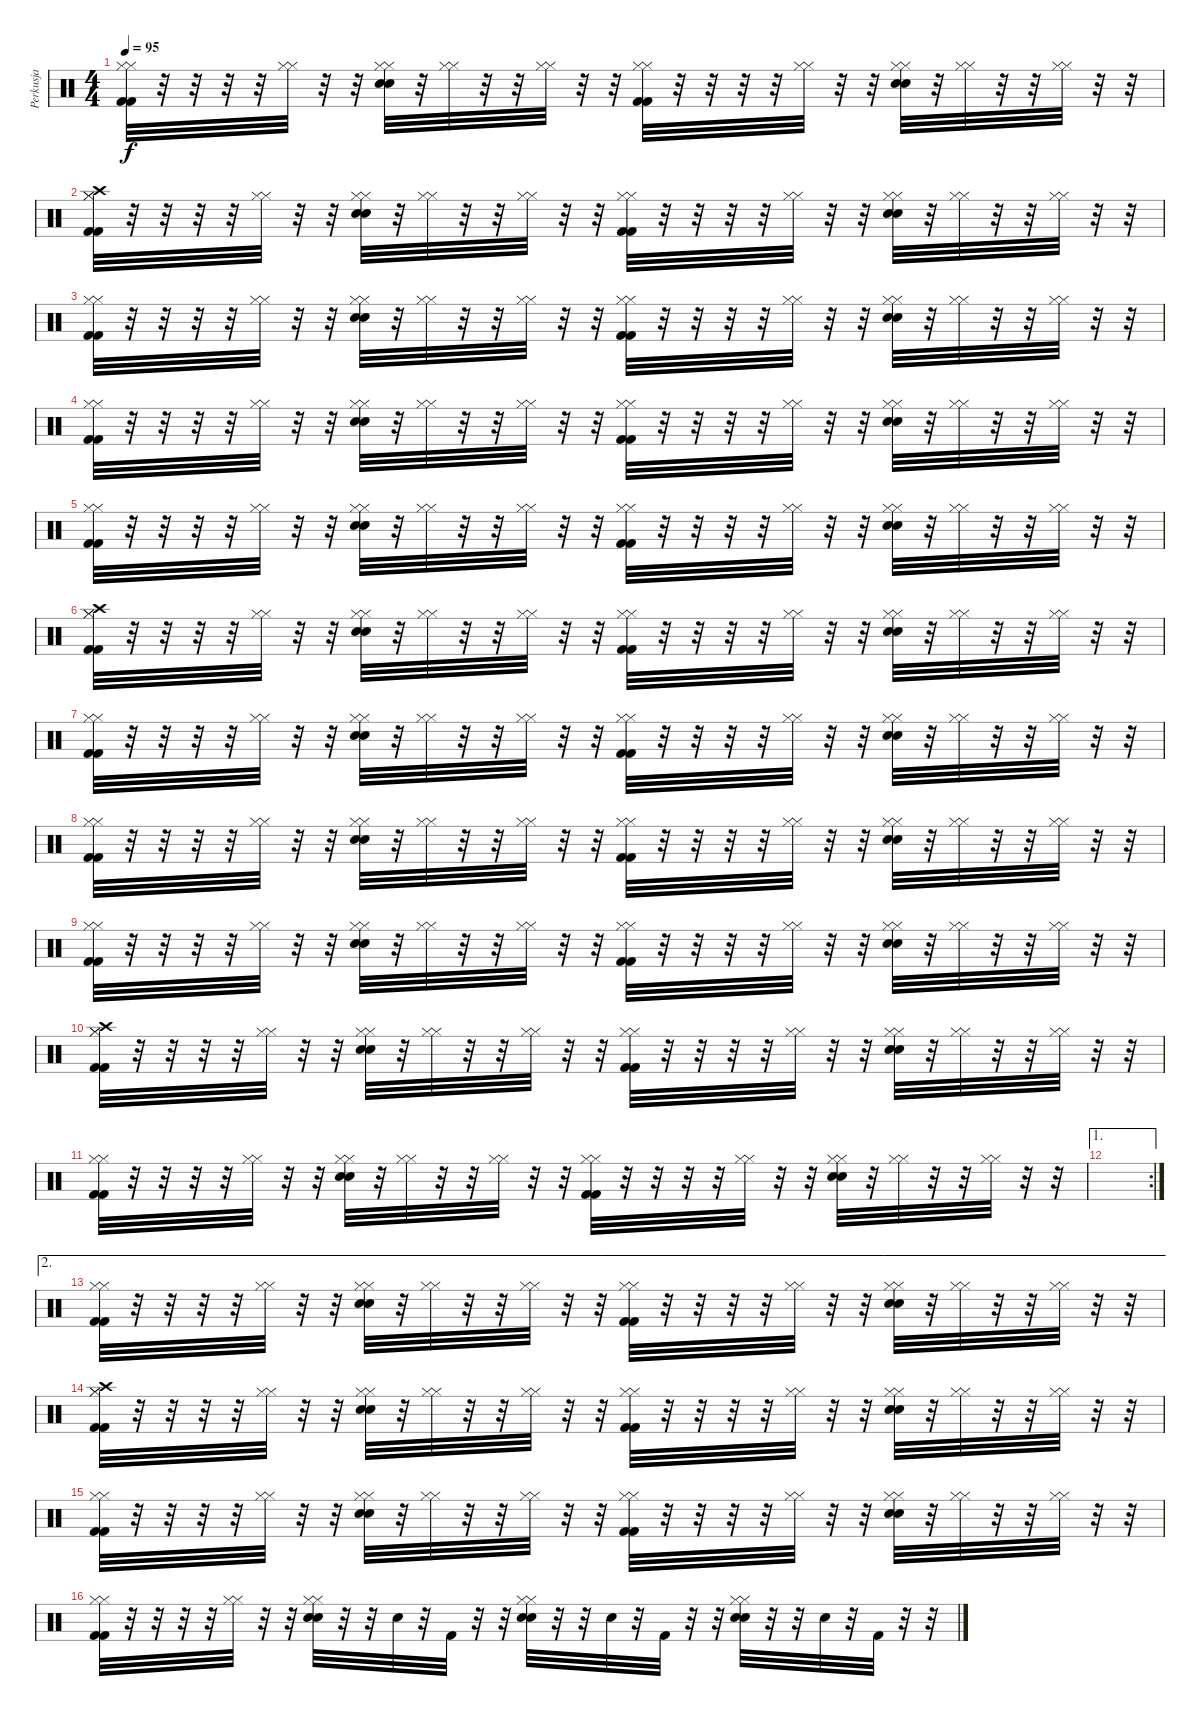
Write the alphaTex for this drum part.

\track ("Perkusja" "Perkusja") {instrument percussion}
\staff {score}
\articulation defaults
\ts (4 4)
\tempo 95
\clef neutral
\ks c
("Hi-Hat (closed)" "Hi-Hat (closed)" "Kick (hit) 2" "Kick (hit) 2").32{dy f} r.32 r.32 r.32 r.32 ("Hi-Hat (closed)" "Hi-Hat (closed)").32 r.32 r.32 ("Hi-Hat (closed)" "Hi-Hat (closed)" "Snare (hit) 2" "Snare (hit) 2").32 r.32 ("Hi-Hat (closed)" "Hi-Hat (closed)").32 r.32 r.32 ("Hi-Hat (closed)" "Hi-Hat (closed)").32 r.32 r.32 ("Hi-Hat (closed)" "Hi-Hat (closed)" "Kick (hit) 2" "Kick (hit) 2").32 r.32 r.32 r.32 r.32 ("Hi-Hat (closed)" "Hi-Hat (closed)").32 r.32 r.32 ("Hi-Hat (closed)" "Hi-Hat (closed)" "Snare (hit) 2" "Snare (hit) 2").32 r.32 ("Hi-Hat (closed)" "Hi-Hat (closed)").32 r.32 r.32 ("Hi-Hat (closed)" "Hi-Hat (closed)").32 r.32 r.32 |
("Crash high (hit)" "Hi-Hat (closed)" "Hi-Hat (closed)" "Kick (hit) 2" "Kick (hit) 2").32 r.32 r.32 r.32 r.32 ("Hi-Hat (closed)" "Hi-Hat (closed)").32 r.32 r.32 ("Hi-Hat (closed)" "Hi-Hat (closed)" "Snare (hit) 2" "Snare (hit) 2").32 r.32 ("Hi-Hat (closed)" "Hi-Hat (closed)").32 r.32 r.32 ("Hi-Hat (closed)" "Hi-Hat (closed)").32 r.32 r.32 ("Hi-Hat (closed)" "Hi-Hat (closed)" "Kick (hit) 2" "Kick (hit) 2").32 r.32 r.32 r.32 r.32 ("Hi-Hat (closed)" "Hi-Hat (closed)").32 r.32 r.32 ("Hi-Hat (closed)" "Hi-Hat (closed)" "Snare (hit) 2" "Snare (hit) 2").32 r.32 ("Hi-Hat (closed)" "Hi-Hat (closed)").32 r.32 r.32 ("Hi-Hat (closed)" "Hi-Hat (closed)").32 r.32 r.32 |
("Hi-Hat (closed)" "Hi-Hat (closed)" "Kick (hit) 2" "Kick (hit) 2").32 r.32 r.32 r.32 r.32 ("Hi-Hat (closed)" "Hi-Hat (closed)").32 r.32 r.32 ("Hi-Hat (closed)" "Hi-Hat (closed)" "Snare (hit) 2" "Snare (hit) 2").32 r.32 ("Hi-Hat (closed)" "Hi-Hat (closed)").32 r.32 r.32 ("Hi-Hat (closed)" "Hi-Hat (closed)").32 r.32 r.32 ("Hi-Hat (closed)" "Hi-Hat (closed)" "Kick (hit) 2" "Kick (hit) 2").32 r.32 r.32 r.32 r.32 ("Hi-Hat (closed)" "Hi-Hat (closed)").32 r.32 r.32 ("Hi-Hat (closed)" "Hi-Hat (closed)" "Snare (hit) 2" "Snare (hit) 2").32 r.32 ("Hi-Hat (closed)" "Hi-Hat (closed)").32 r.32 r.32 ("Hi-Hat (closed)" "Hi-Hat (closed)").32 r.32 r.32 |
("Hi-Hat (closed)" "Hi-Hat (closed)" "Kick (hit) 2" "Kick (hit) 2").32 r.32 r.32 r.32 r.32 ("Hi-Hat (closed)" "Hi-Hat (closed)").32 r.32 r.32 ("Hi-Hat (closed)" "Hi-Hat (closed)" "Snare (hit) 2" "Snare (hit) 2").32 r.32 ("Hi-Hat (closed)" "Hi-Hat (closed)").32 r.32 r.32 ("Hi-Hat (closed)" "Hi-Hat (closed)").32 r.32 r.32 ("Hi-Hat (closed)" "Hi-Hat (closed)" "Kick (hit) 2" "Kick (hit) 2").32 r.32 r.32 r.32 r.32 ("Hi-Hat (closed)" "Hi-Hat (closed)").32 r.32 r.32 ("Hi-Hat (closed)" "Hi-Hat (closed)" "Snare (hit) 2" "Snare (hit) 2").32 r.32 ("Hi-Hat (closed)" "Hi-Hat (closed)").32 r.32 r.32 ("Hi-Hat (closed)" "Hi-Hat (closed)").32 r.32 r.32 |
("Hi-Hat (closed)" "Hi-Hat (closed)" "Kick (hit) 2" "Kick (hit) 2").32 r.32 r.32 r.32 r.32 ("Hi-Hat (closed)" "Hi-Hat (closed)").32 r.32 r.32 ("Hi-Hat (closed)" "Hi-Hat (closed)" "Snare (hit) 2" "Snare (hit) 2").32 r.32 ("Hi-Hat (closed)" "Hi-Hat (closed)").32 r.32 r.32 ("Hi-Hat (closed)" "Hi-Hat (closed)").32 r.32 r.32 ("Hi-Hat (closed)" "Hi-Hat (closed)" "Kick (hit) 2" "Kick (hit) 2").32 r.32 r.32 r.32 r.32 ("Hi-Hat (closed)" "Hi-Hat (closed)").32 r.32 r.32 ("Hi-Hat (closed)" "Hi-Hat (closed)" "Snare (hit) 2" "Snare (hit) 2").32 r.32 ("Hi-Hat (closed)" "Hi-Hat (closed)").32 r.32 r.32 ("Hi-Hat (closed)" "Hi-Hat (closed)").32 r.32 r.32 |
("Crash high (hit)" "Hi-Hat (closed)" "Hi-Hat (closed)" "Kick (hit) 2" "Kick (hit) 2").32 r.32 r.32 r.32 r.32 ("Hi-Hat (closed)" "Hi-Hat (closed)").32 r.32 r.32 ("Hi-Hat (closed)" "Hi-Hat (closed)" "Snare (hit) 2" "Snare (hit) 2").32 r.32 ("Hi-Hat (closed)" "Hi-Hat (closed)").32 r.32 r.32 ("Hi-Hat (closed)" "Hi-Hat (closed)").32 r.32 r.32 ("Hi-Hat (closed)" "Hi-Hat (closed)" "Kick (hit) 2" "Kick (hit) 2").32 r.32 r.32 r.32 r.32 ("Hi-Hat (closed)" "Hi-Hat (closed)").32 r.32 r.32 ("Hi-Hat (closed)" "Hi-Hat (closed)" "Snare (hit) 2" "Snare (hit) 2").32 r.32 ("Hi-Hat (closed)" "Hi-Hat (closed)").32 r.32 r.32 ("Hi-Hat (closed)" "Hi-Hat (closed)").32 r.32 r.32 |
("Hi-Hat (closed)" "Hi-Hat (closed)" "Kick (hit) 2" "Kick (hit) 2").32 r.32 r.32 r.32 r.32 ("Hi-Hat (closed)" "Hi-Hat (closed)").32 r.32 r.32 ("Hi-Hat (closed)" "Hi-Hat (closed)" "Snare (hit) 2" "Snare (hit) 2").32 r.32 ("Hi-Hat (closed)" "Hi-Hat (closed)").32 r.32 r.32 ("Hi-Hat (closed)" "Hi-Hat (closed)").32 r.32 r.32 ("Hi-Hat (closed)" "Hi-Hat (closed)" "Kick (hit) 2" "Kick (hit) 2").32 r.32 r.32 r.32 r.32 ("Hi-Hat (closed)" "Hi-Hat (closed)").32 r.32 r.32 ("Hi-Hat (closed)" "Hi-Hat (closed)" "Snare (hit) 2" "Snare (hit) 2").32 r.32 ("Hi-Hat (closed)" "Hi-Hat (closed)").32 r.32 r.32 ("Hi-Hat (closed)" "Hi-Hat (closed)").32 r.32 r.32 |
("Hi-Hat (closed)" "Hi-Hat (closed)" "Kick (hit) 2" "Kick (hit) 2").32 r.32 r.32 r.32 r.32 ("Hi-Hat (closed)" "Hi-Hat (closed)").32 r.32 r.32 ("Hi-Hat (closed)" "Hi-Hat (closed)" "Snare (hit) 2" "Snare (hit) 2").32 r.32 ("Hi-Hat (closed)" "Hi-Hat (closed)").32 r.32 r.32 ("Hi-Hat (closed)" "Hi-Hat (closed)").32 r.32 r.32 ("Hi-Hat (closed)" "Hi-Hat (closed)" "Kick (hit) 2" "Kick (hit) 2").32 r.32 r.32 r.32 r.32 ("Hi-Hat (closed)" "Hi-Hat (closed)").32 r.32 r.32 ("Hi-Hat (closed)" "Hi-Hat (closed)" "Snare (hit) 2" "Snare (hit) 2").32 r.32 ("Hi-Hat (closed)" "Hi-Hat (closed)").32 r.32 r.32 ("Hi-Hat (closed)" "Hi-Hat (closed)").32 r.32 r.32 |
("Hi-Hat (closed)" "Hi-Hat (closed)" "Kick (hit) 2" "Kick (hit) 2").32 r.32 r.32 r.32 r.32 ("Hi-Hat (closed)" "Hi-Hat (closed)").32 r.32 r.32 ("Hi-Hat (closed)" "Hi-Hat (closed)" "Snare (hit) 2" "Snare (hit) 2").32 r.32 ("Hi-Hat (closed)" "Hi-Hat (closed)").32 r.32 r.32 ("Hi-Hat (closed)" "Hi-Hat (closed)").32 r.32 r.32 ("Hi-Hat (closed)" "Hi-Hat (closed)" "Kick (hit) 2" "Kick (hit) 2").32 r.32 r.32 r.32 r.32 ("Hi-Hat (closed)" "Hi-Hat (closed)").32 r.32 r.32 ("Hi-Hat (closed)" "Hi-Hat (closed)" "Snare (hit) 2" "Snare (hit) 2").32 r.32 ("Hi-Hat (closed)" "Hi-Hat (closed)").32 r.32 r.32 ("Hi-Hat (closed)" "Hi-Hat (closed)").32 r.32 r.32 |
("Crash high (hit)" "Hi-Hat (closed)" "Hi-Hat (closed)" "Kick (hit) 2" "Kick (hit) 2").32 r.32 r.32 r.32 r.32 ("Hi-Hat (closed)" "Hi-Hat (closed)").32 r.32 r.32 ("Hi-Hat (closed)" "Hi-Hat (closed)" "Snare (hit) 2" "Snare (hit) 2").32 r.32 ("Hi-Hat (closed)" "Hi-Hat (closed)").32 r.32 r.32 ("Hi-Hat (closed)" "Hi-Hat (closed)").32 r.32 r.32 ("Hi-Hat (closed)" "Hi-Hat (closed)" "Kick (hit) 2" "Kick (hit) 2").32 r.32 r.32 r.32 r.32 ("Hi-Hat (closed)" "Hi-Hat (closed)").32 r.32 r.32 ("Hi-Hat (closed)" "Hi-Hat (closed)" "Snare (hit) 2" "Snare (hit) 2").32 r.32 ("Hi-Hat (closed)" "Hi-Hat (closed)").32 r.32 r.32 ("Hi-Hat (closed)" "Hi-Hat (closed)").32 r.32 r.32 |
("Hi-Hat (closed)" "Hi-Hat (closed)" "Kick (hit) 2" "Kick (hit) 2").32 r.32 r.32 r.32 r.32 ("Hi-Hat (closed)" "Hi-Hat (closed)").32 r.32 r.32 ("Hi-Hat (closed)" "Hi-Hat (closed)" "Snare (hit) 2" "Snare (hit) 2").32 r.32 ("Hi-Hat (closed)" "Hi-Hat (closed)").32 r.32 r.32 ("Hi-Hat (closed)" "Hi-Hat (closed)").32 r.32 r.32 ("Hi-Hat (closed)" "Hi-Hat (closed)" "Kick (hit) 2" "Kick (hit) 2").32 r.32 r.32 r.32 r.32 ("Hi-Hat (closed)" "Hi-Hat (closed)").32 r.32 r.32 ("Hi-Hat (closed)" "Hi-Hat (closed)" "Snare (hit) 2" "Snare (hit) 2").32 r.32 ("Hi-Hat (closed)" "Hi-Hat (closed)").32 r.32 r.32 ("Hi-Hat (closed)" "Hi-Hat (closed)").32 r.32 r.32 |
\ae 1
\rc 2
|
\ae 2
("Hi-Hat (closed)" "Hi-Hat (closed)" "Kick (hit) 2" "Kick (hit) 2").32 r.32 r.32 r.32 r.32 ("Hi-Hat (closed)" "Hi-Hat (closed)").32 r.32 r.32 ("Hi-Hat (closed)" "Hi-Hat (closed)" "Snare (hit) 2" "Snare (hit) 2").32 r.32 ("Hi-Hat (closed)" "Hi-Hat (closed)").32 r.32 r.32 ("Hi-Hat (closed)" "Hi-Hat (closed)").32 r.32 r.32 ("Hi-Hat (closed)" "Hi-Hat (closed)" "Kick (hit) 2" "Kick (hit) 2").32 r.32 r.32 r.32 r.32 ("Hi-Hat (closed)" "Hi-Hat (closed)").32 r.32 r.32 ("Hi-Hat (closed)" "Hi-Hat (closed)" "Snare (hit) 2" "Snare (hit) 2").32 r.32 ("Hi-Hat (closed)" "Hi-Hat (closed)").32 r.32 r.32 ("Hi-Hat (closed)" "Hi-Hat (closed)").32 r.32 r.32 |
("Crash high (hit)" "Hi-Hat (closed)" "Hi-Hat (closed)" "Kick (hit) 2" "Kick (hit) 2").32 r.32 r.32 r.32 r.32 ("Hi-Hat (closed)" "Hi-Hat (closed)").32 r.32 r.32 ("Hi-Hat (closed)" "Hi-Hat (closed)" "Snare (hit) 2" "Snare (hit) 2").32 r.32 ("Hi-Hat (closed)" "Hi-Hat (closed)").32 r.32 r.32 ("Hi-Hat (closed)" "Hi-Hat (closed)").32 r.32 r.32 ("Hi-Hat (closed)" "Hi-Hat (closed)" "Kick (hit) 2" "Kick (hit) 2").32 r.32 r.32 r.32 r.32 ("Hi-Hat (closed)" "Hi-Hat (closed)").32 r.32 r.32 ("Hi-Hat (closed)" "Hi-Hat (closed)" "Snare (hit) 2" "Snare (hit) 2").32 r.32 ("Hi-Hat (closed)" "Hi-Hat (closed)").32 r.32 r.32 ("Hi-Hat (closed)" "Hi-Hat (closed)").32 r.32 r.32 |
("Hi-Hat (closed)" "Hi-Hat (closed)" "Kick (hit) 2" "Kick (hit) 2").32 r.32 r.32 r.32 r.32 ("Hi-Hat (closed)" "Hi-Hat (closed)").32 r.32 r.32 ("Hi-Hat (closed)" "Hi-Hat (closed)" "Snare (hit) 2" "Snare (hit) 2").32 r.32 ("Hi-Hat (closed)" "Hi-Hat (closed)").32 r.32 r.32 ("Hi-Hat (closed)" "Hi-Hat (closed)").32 r.32 r.32 ("Hi-Hat (closed)" "Hi-Hat (closed)" "Kick (hit) 2" "Kick (hit) 2").32 r.32 r.32 r.32 r.32 ("Hi-Hat (closed)" "Hi-Hat (closed)").32 r.32 r.32 ("Hi-Hat (closed)" "Hi-Hat (closed)" "Snare (hit) 2" "Snare (hit) 2").32 r.32 ("Hi-Hat (closed)" "Hi-Hat (closed)").32 r.32 r.32 ("Hi-Hat (closed)" "Hi-Hat (closed)").32 r.32 r.32 |
("Hi-Hat (closed)" "Hi-Hat (closed)" "Kick (hit) 2" "Kick (hit) 2").32 r.32 r.32 r.32 r.32 ("Hi-Hat (closed)" "Hi-Hat (closed)").32 r.32 r.32 ("Hi-Hat (closed)" "Hi-Hat (closed)" "Snare (hit) 2" "Snare (hit) 2").32 r.32 r.32 "Snare (hit) 2".32 r.32 "Kick (hit) 2".32 r.32 r.32 ("Hi-Hat (closed)" "Hi-Hat (closed)" "Snare (hit) 2" "Snare (hit) 2").32 r.32 r.32 "Snare (hit) 2".32 r.32 "Kick (hit) 2".32 r.32 r.32 ("Hi-Hat (closed)" "Hi-Hat (closed)" "Snare (hit) 2" "Snare (hit) 2").32 r.32 r.32 "Snare (hit) 2".32 r.32 "Kick (hit) 2".32 r.32 r.32
